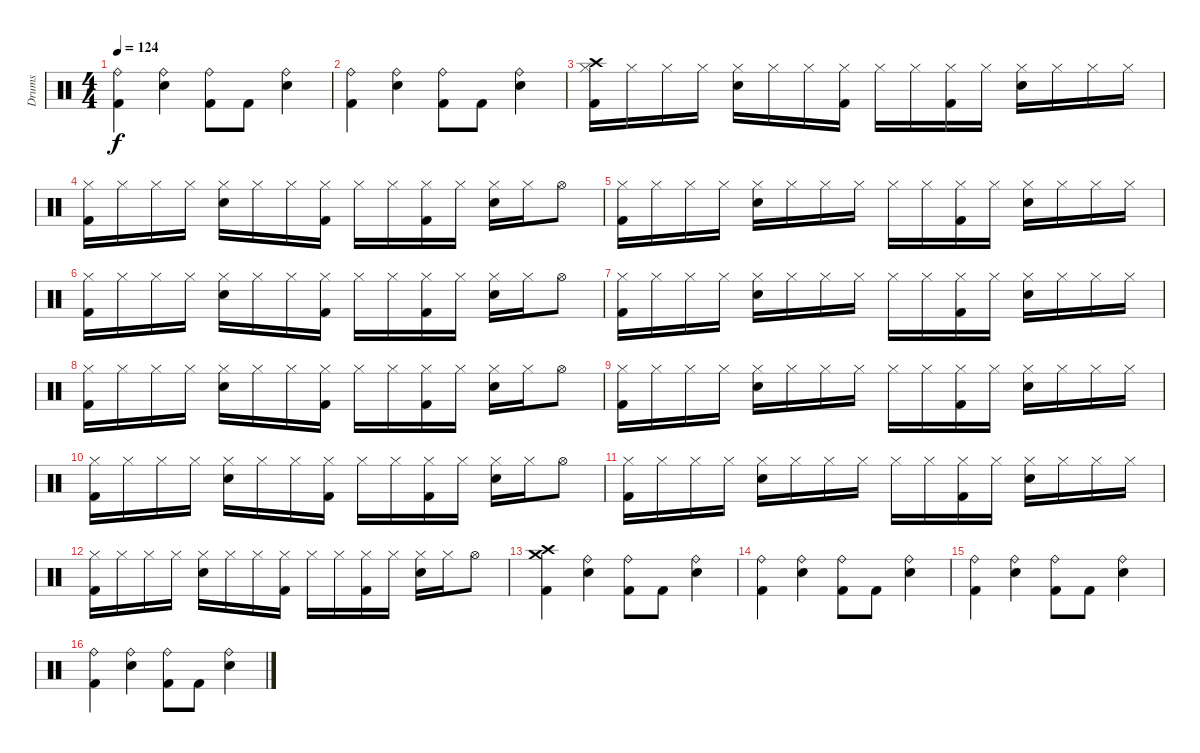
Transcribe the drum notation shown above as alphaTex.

\track ("Drums" "Drums") {instrument percussion}
\staff {score}
\articulation defaults
\ts (4 4)
\tempo 124
\clef neutral
\ks c
("Ride (bell)" "Kick (hit) 2").4{dy f} ("Ride (bell)" "Electric Snare (hit)").4 ("Ride (bell)" "Kick (hit) 2").8 "Kick (hit) 2".8 ("Ride (bell)" "Electric Snare (hit)").4 |
("Ride (bell)" "Kick (hit) 2").4 ("Ride (bell)" "Electric Snare (hit)").4 ("Ride (bell)" "Kick (hit) 2").8 "Kick (hit) 2".8 ("Ride (bell)" "Electric Snare (hit)").4 |
("Crash high (hit)" "Hi-Hat (closed)" "Kick (hit) 2").16 "Hi-Hat (closed)".16 "Hi-Hat (closed)".16 "Hi-Hat (closed)".16 ("Hi-Hat (closed)" "Electric Snare (hit)").16 "Hi-Hat (closed)".16 "Hi-Hat (closed)".16 ("Hi-Hat (closed)" "Kick (hit) 2").16 "Hi-Hat (closed)".16 "Hi-Hat (closed)".16 ("Hi-Hat (closed)" "Kick (hit) 2").16 "Hi-Hat (closed)".16 ("Hi-Hat (closed)" "Electric Snare (hit)").16 "Hi-Hat (closed)".16 "Hi-Hat (closed)".16 "Hi-Hat (closed)".16 |
("Hi-Hat (closed)" "Kick (hit) 2").16 "Hi-Hat (closed)".16 "Hi-Hat (closed)".16 "Hi-Hat (closed)".16 ("Hi-Hat (closed)" "Electric Snare (hit)").16 "Hi-Hat (closed)".16 "Hi-Hat (closed)".16 ("Hi-Hat (closed)" "Kick (hit) 2").16 "Hi-Hat (closed)".16 "Hi-Hat (closed)".16 ("Hi-Hat (closed)" "Kick (hit) 2").16 "Hi-Hat (closed)".16 ("Hi-Hat (closed)" "Electric Snare (hit)").16 "Hi-Hat (closed)".16 "Hi-Hat (open)".8 |
("Hi-Hat (closed)" "Kick (hit) 2").16 "Hi-Hat (closed)".16 "Hi-Hat (closed)".16 "Hi-Hat (closed)".16 ("Hi-Hat (closed)" "Electric Snare (hit)").16 "Hi-Hat (closed)".16 "Hi-Hat (closed)".16 "Hi-Hat (closed)".16 "Hi-Hat (closed)".16 "Hi-Hat (closed)".16 ("Hi-Hat (closed)" "Kick (hit) 2").16 "Hi-Hat (closed)".16 ("Hi-Hat (closed)" "Electric Snare (hit)").16 "Hi-Hat (closed)".16 "Hi-Hat (closed)".16 "Hi-Hat (closed)".16 |
("Hi-Hat (closed)" "Kick (hit) 2").16 "Hi-Hat (closed)".16 "Hi-Hat (closed)".16 "Hi-Hat (closed)".16 ("Hi-Hat (closed)" "Electric Snare (hit)").16 "Hi-Hat (closed)".16 "Hi-Hat (closed)".16 ("Hi-Hat (closed)" "Kick (hit) 2").16 "Hi-Hat (closed)".16 "Hi-Hat (closed)".16 ("Hi-Hat (closed)" "Kick (hit) 2").16 "Hi-Hat (closed)".16 ("Hi-Hat (closed)" "Electric Snare (hit)").16 "Hi-Hat (closed)".16 "Hi-Hat (open)".8 |
("Hi-Hat (closed)" "Kick (hit) 2").16 "Hi-Hat (closed)".16 "Hi-Hat (closed)".16 "Hi-Hat (closed)".16 ("Hi-Hat (closed)" "Electric Snare (hit)").16 "Hi-Hat (closed)".16 "Hi-Hat (closed)".16 "Hi-Hat (closed)".16 "Hi-Hat (closed)".16 "Hi-Hat (closed)".16 ("Hi-Hat (closed)" "Kick (hit) 2").16 "Hi-Hat (closed)".16 ("Hi-Hat (closed)" "Electric Snare (hit)").16 "Hi-Hat (closed)".16 "Hi-Hat (closed)".16 "Hi-Hat (closed)".16 |
("Hi-Hat (closed)" "Kick (hit) 2").16 "Hi-Hat (closed)".16 "Hi-Hat (closed)".16 "Hi-Hat (closed)".16 ("Hi-Hat (closed)" "Electric Snare (hit)").16 "Hi-Hat (closed)".16 "Hi-Hat (closed)".16 ("Hi-Hat (closed)" "Kick (hit) 2").16 "Hi-Hat (closed)".16 "Hi-Hat (closed)".16 ("Hi-Hat (closed)" "Kick (hit) 2").16 "Hi-Hat (closed)".16 ("Hi-Hat (closed)" "Electric Snare (hit)").16 "Hi-Hat (closed)".16 "Hi-Hat (open)".8 |
("Hi-Hat (closed)" "Kick (hit) 2").16 "Hi-Hat (closed)".16 "Hi-Hat (closed)".16 "Hi-Hat (closed)".16 ("Hi-Hat (closed)" "Electric Snare (hit)").16 "Hi-Hat (closed)".16 "Hi-Hat (closed)".16 "Hi-Hat (closed)".16 "Hi-Hat (closed)".16 "Hi-Hat (closed)".16 ("Hi-Hat (closed)" "Kick (hit) 2").16 "Hi-Hat (closed)".16 ("Hi-Hat (closed)" "Electric Snare (hit)").16 "Hi-Hat (closed)".16 "Hi-Hat (closed)".16 "Hi-Hat (closed)".16 |
("Hi-Hat (closed)" "Kick (hit) 2").16 "Hi-Hat (closed)".16 "Hi-Hat (closed)".16 "Hi-Hat (closed)".16 ("Hi-Hat (closed)" "Electric Snare (hit)").16 "Hi-Hat (closed)".16 "Hi-Hat (closed)".16 ("Hi-Hat (closed)" "Kick (hit) 2").16 "Hi-Hat (closed)".16 "Hi-Hat (closed)".16 ("Hi-Hat (closed)" "Kick (hit) 2").16 "Hi-Hat (closed)".16 ("Hi-Hat (closed)" "Electric Snare (hit)").16 "Hi-Hat (closed)".16 "Hi-Hat (open)".8 |
("Hi-Hat (closed)" "Kick (hit) 2").16 "Hi-Hat (closed)".16 "Hi-Hat (closed)".16 "Hi-Hat (closed)".16 ("Hi-Hat (closed)" "Electric Snare (hit)").16 "Hi-Hat (closed)".16 "Hi-Hat (closed)".16 "Hi-Hat (closed)".16 "Hi-Hat (closed)".16 "Hi-Hat (closed)".16 ("Hi-Hat (closed)" "Kick (hit) 2").16 "Hi-Hat (closed)".16 ("Hi-Hat (closed)" "Electric Snare (hit)").16 "Hi-Hat (closed)".16 "Hi-Hat (closed)".16 "Hi-Hat (closed)".16 |
("Hi-Hat (closed)" "Kick (hit) 2").16 "Hi-Hat (closed)".16 "Hi-Hat (closed)".16 "Hi-Hat (closed)".16 ("Hi-Hat (closed)" "Electric Snare (hit)").16 "Hi-Hat (closed)".16 "Hi-Hat (closed)".16 ("Hi-Hat (closed)" "Kick (hit) 2").16 "Hi-Hat (closed)".16 "Hi-Hat (closed)".16 ("Hi-Hat (closed)" "Kick (hit) 2").16 "Hi-Hat (closed)".16 ("Hi-Hat (closed)" "Electric Snare (hit)").16 "Hi-Hat (closed)".16 "Hi-Hat (open)".8 |
("Crash high (hit)" "Crash medium (hit)" "Kick (hit) 2").4 ("Ride (bell)" "Electric Snare (hit)").4 ("Ride (bell)" "Kick (hit) 2").8 "Kick (hit) 2".8 ("Ride (bell)" "Electric Snare (hit)").4 |
("Ride (bell)" "Kick (hit) 2").4 ("Ride (bell)" "Electric Snare (hit)").4 ("Ride (bell)" "Kick (hit) 2").8 "Kick (hit) 2".8 ("Ride (bell)" "Electric Snare (hit)").4 |
("Ride (bell)" "Kick (hit) 2").4 ("Ride (bell)" "Electric Snare (hit)").4 ("Ride (bell)" "Kick (hit) 2").8 "Kick (hit) 2".8 ("Ride (bell)" "Electric Snare (hit)").4 |
("Ride (bell)" "Kick (hit) 2").4 ("Ride (bell)" "Electric Snare (hit)").4 ("Ride (bell)" "Kick (hit) 2").8 "Kick (hit) 2".8 ("Ride (bell)" "Electric Snare (hit)").4
